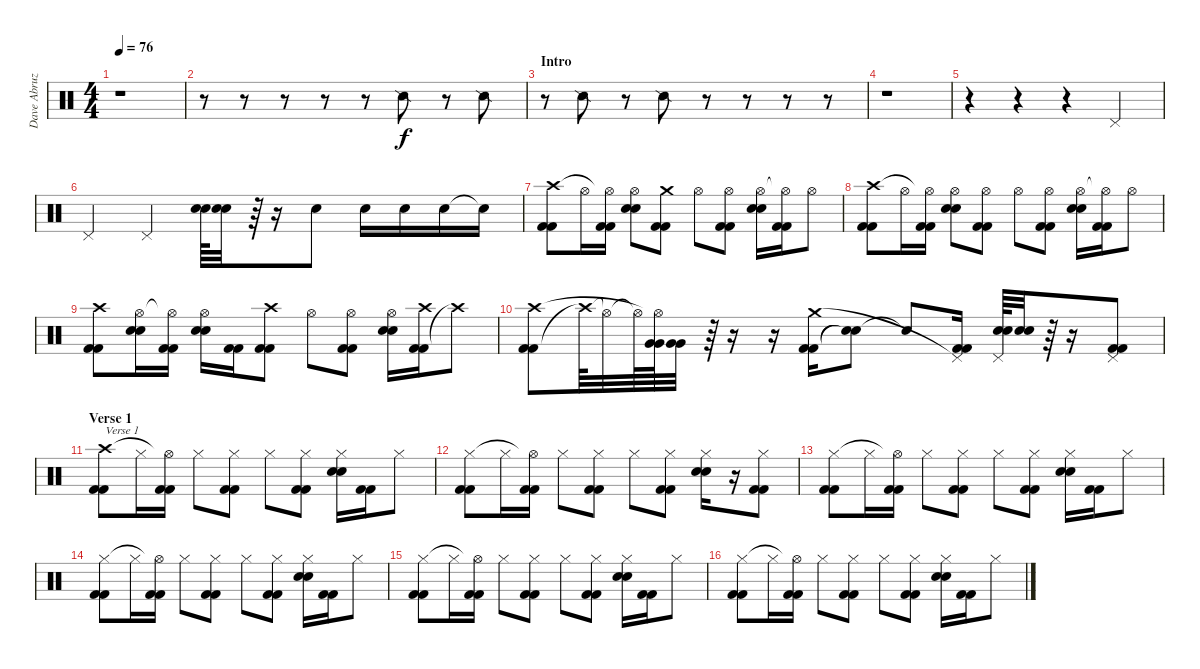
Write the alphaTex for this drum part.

\track ("Dave Abruzzese" "Dave Abruz") {instrument percussion}
\staff {score}
\articulation defaults
\ts (4 4)
\tempo 76
\clef neutral
\ks c
r.1{dy f} |
r.8 r.8 r.8 r.8 r.8 "Snare (side stick) 2".8 r.8 "Snare (side stick) 2".8 |
\section ("" "Intro")
r.8 "Snare (side stick) 2".8 r.8 "Snare (side stick) 2".8 r.8 r.8 r.8 r.8 |
r.1 |
r.4 r.4 r.4 "Pedal Hi-Hat (hit)".4 |
"Pedal Hi-Hat (hit)".4 "Pedal Hi-Hat (hit)".4 ("Electric Snare (hit)" "Electric Snare (hit)").64 ("Electric Snare (hit)" "Electric Snare (hit)").32 r.64 r.16 "Electric Snare (hit)".8 "Electric Snare (hit)".16 "Electric Snare (hit)".16 "Electric Snare (hit)".16 "Snare (hit)"{t}.16 |
\section ("" "")
("Kick (hit) 2" "Kick (hit) 2" "Crash high (hit)").8 "Hi-Hat (open)".16 ("Kick (hit) 2" "Kick (hit) 2" "Hi-Hat (open)"{t}).16 ("Electric Snare (hit)" "Electric Snare (hit)" "Hi-Hat (open)").8 ("Kick (hit) 2" "Kick (hit) 2" "Crash medium (hit)").8 "Hi-Hat (open)".8 ("Kick (hit) 2" "Kick (hit) 2" "Hi-Hat (open)").8 ("Electric Snare (hit)" "Electric Snare (hit)" "Hi-Hat (open)").16 ("Kick (hit) 2" "Kick (hit) 2" "Hi-Hat (open)"{t}).16 "Hi-Hat (open)".8 |
("Kick (hit) 2" "Kick (hit) 2" "Crash high (hit)").8 "Hi-Hat (open)".16 ("Kick (hit) 2" "Kick (hit) 2" "Hi-Hat (open)"{t}).16 ("Electric Snare (hit)" "Electric Snare (hit)" "Hi-Hat (open)").8 ("Kick (hit) 2" "Kick (hit) 2" "Hi-Hat (open)").8 "Hi-Hat (open)".8 ("Kick (hit) 2" "Kick (hit) 2" "Hi-Hat (open)").8 ("Electric Snare (hit)" "Electric Snare (hit)" "Hi-Hat (open)").16 ("Kick (hit) 2" "Kick (hit) 2" "Hi-Hat (open)"{t}).16 "Hi-Hat (open)".8 |
("Kick (hit) 2" "Kick (hit) 2" "Crash high (hit)").8 ("Electric Snare (hit)" "Electric Snare (hit)" "Hi-Hat (open)").16 ("Kick (hit) 2" "Kick (hit) 2" "Hi-Hat (open)"{t}).16 ("Electric Snare (hit)" "Electric Snare (hit)" "Hi-Hat (open)").16 ("Kick (hit) 2" "Kick (hit) 2").16 ("Kick (hit) 2" "Kick (hit) 2" "Crash high (hit)").8 "Hi-Hat (open)".8 ("Kick (hit) 2" "Kick (hit) 2" "Hi-Hat (open)").8 ("Electric Snare (hit)" "Electric Snare (hit)" "Hi-Hat (open)").16 ("Kick (hit) 2" "Kick (hit) 2" "Crash high (hit)").16 "Crash high (hit)"{t}.8 |
("Kick (hit) 2" "Kick (hit) 2" "Crash high (hit)").8 "Crash high (hit)"{t}.64 "Hi-Hat (open)"{t}.32 "Hi-Hat (open)"{t}.64 ("Very Low Tom (hit)" "Very Low Tom (hit)" "Hi-Hat (open)"{t}).64 ("Very Low Tom (hit)" "Very Low Tom (hit)").32 r.64 r.16 r.16 ("Kick (hit) 2" "Kick (hit) 2" "Crash medium (hit)").16 ("Snare (hit)"{t} "Snare (hit)"{t}).8 "Snare (hit)"{t}.8 ("Kick (hit) 2" "Kick (hit) 2" "Pedal Hi-Hat (hit)"{t}).16 ("Electric Snare (hit)" "Electric Snare (hit)" "Pedal Hi-Hat (hit)").64 ("Electric Snare (hit)" "Electric Snare (hit)").32 r.64 r.16 ("Kick (hit) 2" "Kick (hit) 2" "Pedal Hi-Hat (hit)").8 |
\section ("" "Verse 1")
("Kick (hit) 2" "Kick (hit) 2" "Crash high (hit)").8{txt "Verse 1"} "Hi-Hat (closed)".16 ("Kick (hit) 2" "Kick (hit) 2" "Hi-Hat (open)"{t}).16 "Hi-Hat (closed)".8 ("Kick (hit) 2" "Kick (hit) 2" "Hi-Hat (closed)").8 "Hi-Hat (closed)".8 ("Kick (hit) 2" "Kick (hit) 2" "Hi-Hat (closed)").8 ("Electric Snare (hit)" "Electric Snare (hit)" "Hi-Hat (closed)").16 ("Kick (hit) 2" "Kick (hit) 2").16 "Hi-Hat (closed)".8 |
("Kick (hit) 2" "Kick (hit) 2" "Hi-Hat (closed)").8 "Hi-Hat (closed)".16 ("Kick (hit) 2" "Kick (hit) 2" "Hi-Hat (open)"{t}).16 "Hi-Hat (closed)".8 ("Kick (hit) 2" "Kick (hit) 2" "Hi-Hat (closed)").8 "Hi-Hat (closed)".8 ("Kick (hit) 2" "Kick (hit) 2" "Hi-Hat (closed)").8 ("Electric Snare (hit)" "Electric Snare (hit)" "Hi-Hat (closed)").16 r.16 ("Kick (hit) 2" "Kick (hit) 2" "Hi-Hat (closed)").8 |
("Kick (hit) 2" "Kick (hit) 2" "Hi-Hat (closed)").8 "Hi-Hat (closed)".16 ("Kick (hit) 2" "Kick (hit) 2" "Hi-Hat (open)"{t}).16 "Hi-Hat (closed)".8 ("Kick (hit) 2" "Kick (hit) 2" "Hi-Hat (closed)").8 "Hi-Hat (closed)".8 ("Kick (hit) 2" "Kick (hit) 2" "Hi-Hat (closed)").8 ("Electric Snare (hit)" "Electric Snare (hit)" "Hi-Hat (closed)").16 ("Kick (hit) 2" "Kick (hit) 2").16 "Hi-Hat (closed)".8 |
("Kick (hit) 2" "Kick (hit) 2" "Hi-Hat (closed)").8 "Hi-Hat (closed)".16 ("Kick (hit) 2" "Kick (hit) 2" "Hi-Hat (open)"{t}).16 "Hi-Hat (closed)".8 ("Kick (hit) 2" "Kick (hit) 2" "Hi-Hat (closed)").8 "Hi-Hat (closed)".8 ("Kick (hit) 2" "Kick (hit) 2" "Hi-Hat (closed)").8 ("Electric Snare (hit)" "Electric Snare (hit)" "Hi-Hat (closed)").16 ("Kick (hit) 2" "Kick (hit) 2").16 "Hi-Hat (closed)".8 |
("Kick (hit) 2" "Kick (hit) 2" "Hi-Hat (closed)").8 "Hi-Hat (closed)".16 ("Kick (hit) 2" "Kick (hit) 2" "Hi-Hat (open)"{t}).16 "Hi-Hat (closed)".8 ("Kick (hit) 2" "Kick (hit) 2" "Hi-Hat (closed)").8 "Hi-Hat (closed)".8 ("Kick (hit) 2" "Kick (hit) 2" "Hi-Hat (closed)").8 ("Electric Snare (hit)" "Electric Snare (hit)" "Hi-Hat (closed)").16 ("Kick (hit) 2" "Kick (hit) 2").16 "Hi-Hat (closed)".8 |
("Kick (hit) 2" "Kick (hit) 2" "Hi-Hat (closed)").8 "Hi-Hat (closed)".16 ("Kick (hit) 2" "Kick (hit) 2" "Hi-Hat (open)"{t}).16 "Hi-Hat (closed)".8 ("Kick (hit) 2" "Kick (hit) 2" "Hi-Hat (closed)").8 "Hi-Hat (closed)".8 ("Kick (hit) 2" "Kick (hit) 2" "Hi-Hat (closed)").8 ("Electric Snare (hit)" "Electric Snare (hit)" "Hi-Hat (closed)").16 ("Kick (hit) 2" "Kick (hit) 2").16 "Hi-Hat (closed)".8
